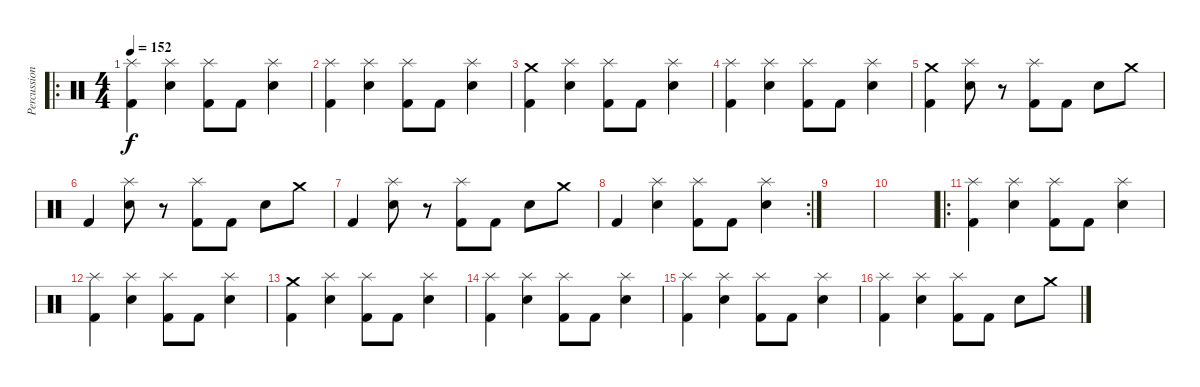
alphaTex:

\track ("Percussion" "Percussion") {instrument percussion}
\staff {score}
\articulation defaults
\ro
\ts (4 4)
\tempo 152
\clef neutral
\ks c
("Splash (hit)" "Kick (hit) 2").4{dy f} ("Splash (hit)" "Snare (hit) 2").4 ("Splash (hit)" "Kick (hit) 2").8 "Kick (hit) 2".8 ("Splash (hit)" "Snare (hit) 2").4 |
("Splash (hit)" "Kick (hit) 2").4 ("Splash (hit)" "Snare (hit) 2").4 ("Splash (hit)" "Kick (hit) 2").8 "Kick (hit) 2".8 ("Splash (hit)" "Snare (hit) 2").4 |
("Crash medium (hit)" "Kick (hit) 2").4 ("Splash (hit)" "Snare (hit) 2").4 ("Splash (hit)" "Kick (hit) 2").8 "Kick (hit) 2".8 ("Splash (hit)" "Snare (hit) 2").4 |
("Splash (hit)" "Kick (hit) 2").4 ("Splash (hit)" "Snare (hit) 2").4 ("Splash (hit)" "Kick (hit) 2").8 "Kick (hit) 2".8 ("Splash (hit)" "Snare (hit) 2").4 |
("Crash medium (hit)" "Kick (hit) 2").4 ("Splash (hit)" "Snare (hit) 2").8 r.8 ("Splash (hit)" "Kick (hit) 2").8 "Kick (hit) 2".8 "Snare (hit) 2".8 "Crash medium (hit)".8 |
"Kick (hit) 2".4 ("Splash (hit)" "Snare (hit) 2").8 r.8 ("Splash (hit)" "Kick (hit) 2").8 "Kick (hit) 2".8 "Snare (hit) 2".8 "Crash medium (hit)".8 |
"Kick (hit) 2".4 ("Splash (hit)" "Snare (hit) 2").8 r.8 ("Splash (hit)" "Kick (hit) 2").8 "Kick (hit) 2".8 "Snare (hit) 2".8 "Crash medium (hit)".8 |
\rc 2 "Kick (hit) 2".4
("Splash (hit)" "Snare (hit) 2").4 ("Splash (hit)" "Kick (hit) 2").8 "Kick (hit) 2".8 ("Splash (hit)" "Snare (hit) 2").4 |
|
|
\ro
("Splash (hit)" "Kick (hit) 2").4 ("Splash (hit)" "Snare (hit) 2").4 ("Splash (hit)" "Kick (hit) 2").8 "Kick (hit) 2".8 ("Splash (hit)" "Snare (hit) 2").4 |
("Splash (hit)" "Kick (hit) 2").4 ("Splash (hit)" "Snare (hit) 2").4 ("Splash (hit)" "Kick (hit) 2").8 "Kick (hit) 2".8 ("Splash (hit)" "Snare (hit) 2").4 |
("Crash medium (hit)" "Kick (hit) 2").4 ("Splash (hit)" "Snare (hit) 2").4 ("Splash (hit)" "Kick (hit) 2").8 "Kick (hit) 2".8 ("Splash (hit)" "Snare (hit) 2").4 |
("Splash (hit)" "Kick (hit) 2").4 ("Splash (hit)" "Snare (hit) 2").4 ("Splash (hit)" "Kick (hit) 2").8 "Kick (hit) 2".8 ("Splash (hit)" "Snare (hit) 2").4 |
("Splash (hit)" "Kick (hit) 2").4 ("Splash (hit)" "Snare (hit) 2").4 ("Splash (hit)" "Kick (hit) 2").8 "Kick (hit) 2".8 ("Splash (hit)" "Snare (hit) 2").4 |
("Splash (hit)" "Kick (hit) 2").4 ("Splash (hit)" "Snare (hit) 2").4 ("Splash (hit)" "Kick (hit) 2").8 "Kick (hit) 2".8 "Snare (hit) 2".8 "Crash medium (hit)".8
